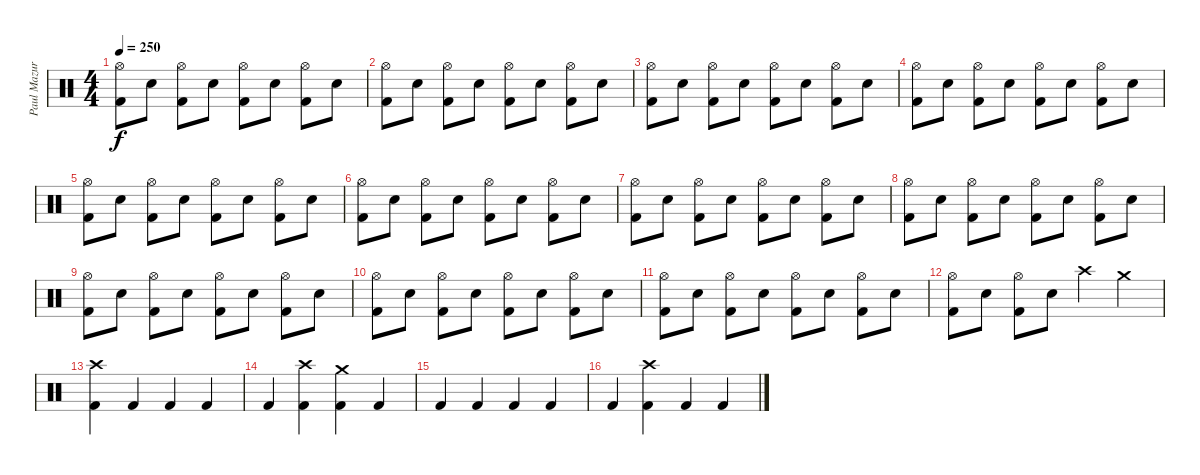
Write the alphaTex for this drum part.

\track ("Paul Mazurkiewicz" "Paul Mazur") {instrument percussion}
\staff {score}
\articulation defaults
\ts (4 4)
\tempo 250
\clef neutral
\ks c
("Hi-Hat (open)" "Kick (hit) 2").8{dy f} "Snare (hit) 2".8 ("Hi-Hat (open)" "Kick (hit) 2").8 "Snare (hit) 2".8 ("Hi-Hat (open)" "Kick (hit) 2").8 "Snare (hit) 2".8 ("Hi-Hat (open)" "Kick (hit) 2").8 "Snare (hit) 2".8 |
("Hi-Hat (open)" "Kick (hit) 2").8 "Snare (hit) 2".8 ("Hi-Hat (open)" "Kick (hit) 2").8 "Snare (hit) 2".8 ("Hi-Hat (open)" "Kick (hit) 2").8 "Snare (hit) 2".8 ("Hi-Hat (open)" "Kick (hit) 2").8 "Snare (hit) 2".8 |
("Hi-Hat (open)" "Kick (hit) 2").8 "Snare (hit) 2".8 ("Hi-Hat (open)" "Kick (hit) 2").8 "Snare (hit) 2".8 ("Hi-Hat (open)" "Kick (hit) 2").8 "Snare (hit) 2".8 ("Hi-Hat (open)" "Kick (hit) 2").8 "Snare (hit) 2".8 |
("Hi-Hat (open)" "Kick (hit) 2").8 "Snare (hit) 2".8 ("Hi-Hat (open)" "Kick (hit) 2").8 "Snare (hit) 2".8 ("Hi-Hat (open)" "Kick (hit) 2").8 "Snare (hit) 2".8 ("Hi-Hat (open)" "Kick (hit) 2").8 "Snare (hit) 2".8 |
("Hi-Hat (open)" "Kick (hit) 2").8 "Snare (hit) 2".8 ("Hi-Hat (open)" "Kick (hit) 2").8 "Snare (hit) 2".8 ("Hi-Hat (open)" "Kick (hit) 2").8 "Snare (hit) 2".8 ("Hi-Hat (open)" "Kick (hit) 2").8 "Snare (hit) 2".8 |
("Hi-Hat (open)" "Kick (hit) 2").8 "Snare (hit) 2".8 ("Hi-Hat (open)" "Kick (hit) 2").8 "Snare (hit) 2".8 ("Hi-Hat (open)" "Kick (hit) 2").8 "Snare (hit) 2".8 ("Hi-Hat (open)" "Kick (hit) 2").8 "Snare (hit) 2".8 |
("Hi-Hat (open)" "Kick (hit) 2").8 "Snare (hit) 2".8 ("Hi-Hat (open)" "Kick (hit) 2").8 "Snare (hit) 2".8 ("Hi-Hat (open)" "Kick (hit) 2").8 "Snare (hit) 2".8 ("Hi-Hat (open)" "Kick (hit) 2").8 "Snare (hit) 2".8 |
("Hi-Hat (open)" "Kick (hit) 2").8 "Snare (hit) 2".8 ("Hi-Hat (open)" "Kick (hit) 2").8 "Snare (hit) 2".8 ("Hi-Hat (open)" "Kick (hit) 2").8 "Snare (hit) 2".8 ("Hi-Hat (open)" "Kick (hit) 2").8 "Snare (hit) 2".8 |
("Hi-Hat (open)" "Kick (hit) 2").8 "Snare (hit) 2".8 ("Hi-Hat (open)" "Kick (hit) 2").8 "Snare (hit) 2".8 ("Hi-Hat (open)" "Kick (hit) 2").8 "Snare (hit) 2".8 ("Hi-Hat (open)" "Kick (hit) 2").8 "Snare (hit) 2".8 |
("Hi-Hat (open)" "Kick (hit) 2").8 "Snare (hit) 2".8 ("Hi-Hat (open)" "Kick (hit) 2").8 "Snare (hit) 2".8 ("Hi-Hat (open)" "Kick (hit) 2").8 "Snare (hit) 2".8 ("Hi-Hat (open)" "Kick (hit) 2").8 "Snare (hit) 2".8 |
("Hi-Hat (open)" "Kick (hit) 2").8 "Snare (hit) 2".8 ("Hi-Hat (open)" "Kick (hit) 2").8 "Snare (hit) 2".8 ("Hi-Hat (open)" "Kick (hit) 2").8 "Snare (hit) 2".8 ("Hi-Hat (open)" "Kick (hit) 2").8 "Snare (hit) 2".8 |
("Hi-Hat (open)" "Kick (hit) 2").8 "Snare (hit) 2".8 ("Hi-Hat (open)" "Kick (hit) 2").8 "Snare (hit) 2".8 "Crash high (hit)".4 "Crash medium (hit)".4 |
("Crash high (hit)" "Kick (hit) 2").4 "Kick (hit) 2".4 "Kick (hit) 2".4 "Kick (hit) 2".4 |
"Kick (hit) 2".4 ("Crash high (hit)" "Kick (hit) 2").4 ("Crash medium (hit)" "Kick (hit) 2").4 "Kick (hit) 2".4 |
"Kick (hit) 2".4 "Kick (hit) 2".4 "Kick (hit) 2".4 "Kick (hit) 2".4 |
"Kick (hit) 2".4 ("Crash high (hit)" "Kick (hit) 2").4 "Kick (hit) 2".4 "Kick (hit) 2".4
